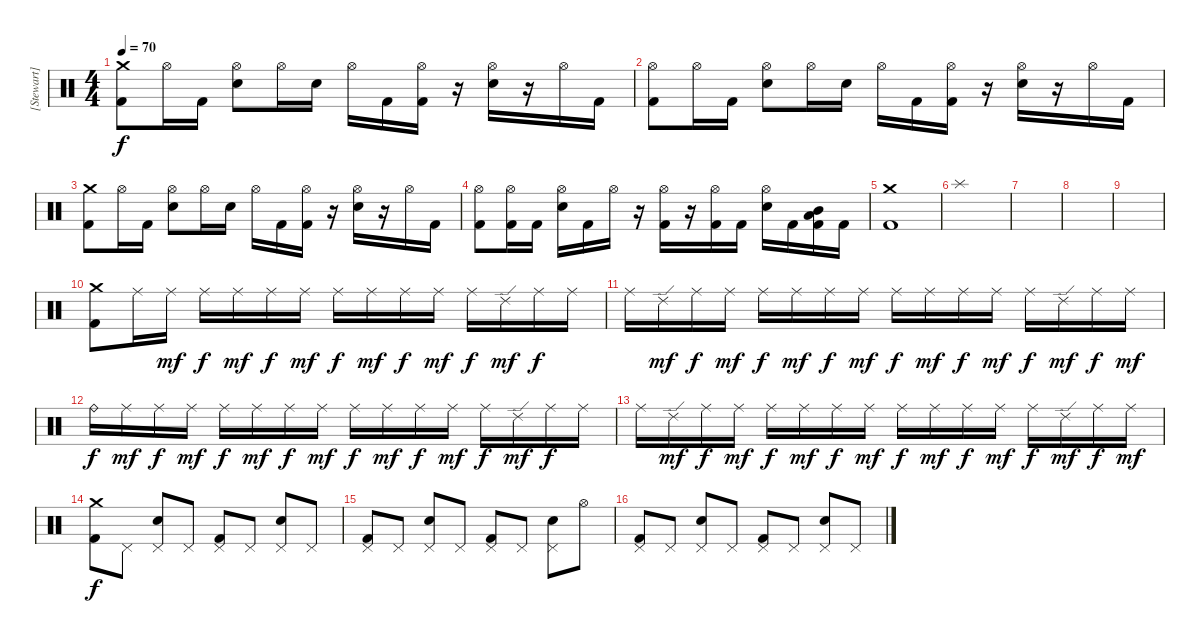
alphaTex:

\track ("[Stewart]" "[Stewart]") {instrument percussion}
\staff {score}
\articulation defaults
\ts (4 4)
\tempo 70
\clef neutral
\ks c
("Kick (hit) 2" "Crash medium (hit)").8{dy f} "Hi-Hat (open)".16 "Kick (hit) 2".16 ("Electric Snare (hit)" "Hi-Hat (open)").8 "Hi-Hat (open)".16 "Electric Snare (hit)".16 "Hi-Hat (open)".16 "Kick (hit) 2".16 ("Kick (hit) 2" "Hi-Hat (open)").16 r.16 ("Electric Snare (hit)" "Hi-Hat (open)").16 r.16 "Hi-Hat (open)".16 "Kick (hit) 2".16 |
("Kick (hit) 2" "Hi-Hat (open)").8 "Hi-Hat (open)".16 "Kick (hit) 2".16 ("Electric Snare (hit)" "Hi-Hat (open)").8 "Hi-Hat (open)".16 "Electric Snare (hit)".16 "Hi-Hat (open)".16 "Kick (hit) 2".16 ("Kick (hit) 2" "Hi-Hat (open)").16 r.16 ("Electric Snare (hit)" "Hi-Hat (open)").16 r.16 "Hi-Hat (open)".16 "Kick (hit) 2".16 |
("Kick (hit) 2" "Crash medium (hit)").8 "Hi-Hat (open)".16 "Kick (hit) 2".16 ("Electric Snare (hit)" "Hi-Hat (open)").8 "Hi-Hat (open)".16 "Electric Snare (hit)".16 "Hi-Hat (open)".16 "Kick (hit) 2".16 ("Kick (hit) 2" "Hi-Hat (open)").16 r.16 ("Electric Snare (hit)" "Hi-Hat (open)").16 r.16 "Hi-Hat (open)".16 "Kick (hit) 2".16 |
("Kick (hit) 2" "Hi-Hat (open)").8 ("Kick (hit) 2" "Hi-Hat (open)").16 "Kick (hit) 2".16 ("Electric Snare (hit)" "Hi-Hat (open)").16 "Kick (hit) 2".16 "Hi-Hat (open)".16 r.16 ("Kick (hit) 2" "Hi-Hat (open)").16 r.16 ("Kick (hit) 2" "Hi-Hat (open)").16 "Kick (hit) 2".16 ("Electric Snare (hit)" "Hi-Hat (open)").16 "Kick (hit) 2".16 ("Mid Tom (hit)" "Low Tom (hit)" "Kick (hit) 2").16 "Kick (hit) 2".16 |
("Kick (hit) 2" "Crash medium (hit)").1 |
"Splash (hit)".1 |
|
|
|
("Kick (hit) 2" "Crash medium (hit)").8 "Ride (middle)".16 "Ride (middle)".16{dy mf} "Ride (middle)".16{dy f} "Ride (middle)".16{dy mf} "Ride (middle)".16{dy f} "Ride (middle)".16{dy mf} "Ride (middle)".16{dy f} "Ride (middle)".16{dy mf} "Ride (middle)".16{dy f} "Ride (middle)".16{dy mf} "Ride (middle)".16{dy f} "Ride (edge) 2".16{dy mf} "Ride (middle)".16{dy f} "Ride (middle)".16 |
"Ride (middle)".16 "Ride (edge) 2".16{dy mf} "Ride (middle)".16{dy f} "Ride (middle)".16{dy mf} "Ride (middle)".16{dy f} "Ride (middle)".16{dy mf} "Ride (middle)".16{dy f} "Ride (middle)".16{dy mf} "Ride (middle)".16{dy f} "Ride (middle)".16{dy mf} "Ride (middle)".16{dy f} "Ride (middle)".16{dy mf} "Ride (middle)".16{dy f} "Ride (edge) 2".16{dy mf} "Ride (middle)".16{dy f} "Ride (middle)".16{dy mf} |
"Ride (bell)".16{dy f} "Ride (middle)".16{dy mf} "Ride (middle)".16{dy f} "Ride (middle)".16{dy mf} "Ride (middle)".16{dy f} "Ride (middle)".16{dy mf} "Ride (middle)".16{dy f} "Ride (middle)".16{dy mf} "Ride (middle)".16{dy f} "Ride (middle)".16{dy mf} "Ride (middle)".16{dy f} "Ride (middle)".16{dy mf} "Ride (middle)".16{dy f} "Ride (edge) 2".16{dy mf} "Ride (middle)".16{dy f} "Ride (middle)".16 |
"Ride (middle)".16 "Ride (edge) 2".16{dy mf} "Ride (middle)".16{dy f} "Ride (middle)".16{dy mf} "Ride (middle)".16{dy f} "Ride (middle)".16{dy mf} "Ride (middle)".16{dy f} "Ride (middle)".16{dy mf} "Ride (middle)".16{dy f} "Ride (middle)".16{dy mf} "Ride (middle)".16{dy f} "Ride (middle)".16{dy mf} "Ride (middle)".16{dy f} "Ride (edge) 2".16{dy mf} "Ride (middle)".16{dy f} "Ride (middle)".16{dy mf} |
("Kick (hit) 2" "Crash medium (hit)").8{dy f} "Pedal Hi-Hat (hit)".8 ("Electric Snare (hit)" "Pedal Hi-Hat (hit)").8 "Pedal Hi-Hat (hit)".8 ("Kick (hit) 2" "Pedal Hi-Hat (hit)").8 "Pedal Hi-Hat (hit)".8 ("Electric Snare (hit)" "Pedal Hi-Hat (hit)").8 "Pedal Hi-Hat (hit)".8 |
("Kick (hit) 2" "Pedal Hi-Hat (hit)").8 "Pedal Hi-Hat (hit)".8 ("Electric Snare (hit)" "Pedal Hi-Hat (hit)").8 "Pedal Hi-Hat (hit)".8 ("Kick (hit) 2" "Pedal Hi-Hat (hit)").8 "Pedal Hi-Hat (hit)".8 ("Electric Snare (hit)" "Pedal Hi-Hat (hit)").8 "Hi-Hat (open)".8 |
("Kick (hit) 2" "Pedal Hi-Hat (hit)").8 "Pedal Hi-Hat (hit)".8 ("Electric Snare (hit)" "Pedal Hi-Hat (hit)").8 "Pedal Hi-Hat (hit)".8 ("Kick (hit) 2" "Pedal Hi-Hat (hit)").8 "Pedal Hi-Hat (hit)".8 ("Electric Snare (hit)" "Pedal Hi-Hat (hit)").8 "Pedal Hi-Hat (hit)".8
